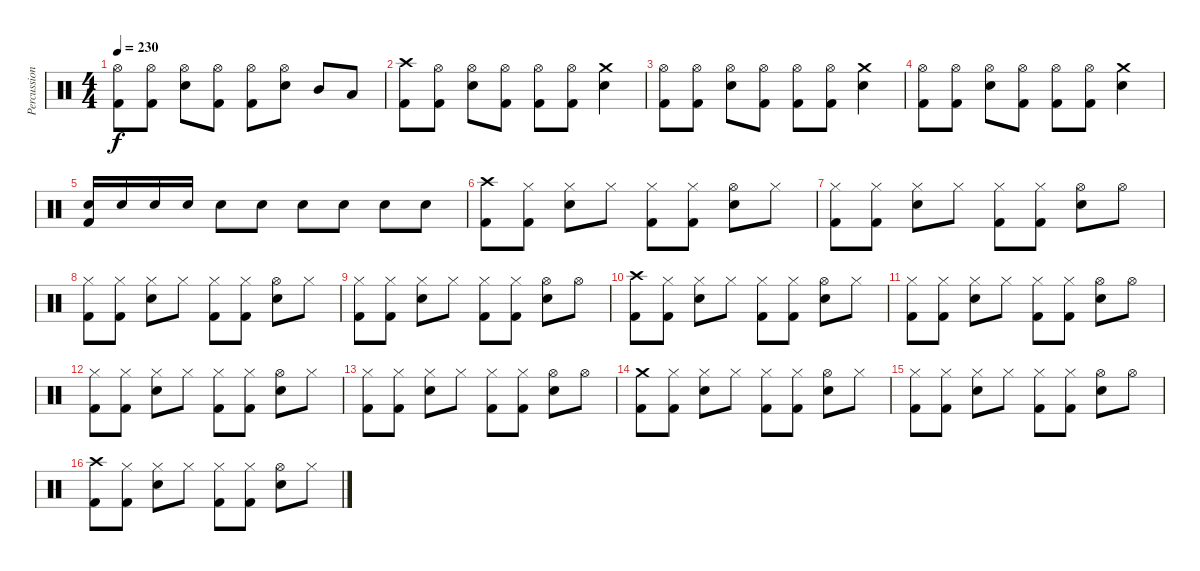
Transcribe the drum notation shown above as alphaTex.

\track ("Percussion" "Percussion") {instrument percussion}
\staff {score}
\articulation defaults
\ts (4 4)
\tempo 230
\clef neutral
\ks c
("Hi-Hat (open)" "Kick (hit) 2").8{dy f} ("Hi-Hat (open)" "Kick (hit) 2").8 ("Hi-Hat (open)" "Snare (hit) 2").8 ("Hi-Hat (open)" "Kick (hit) 2").8 ("Hi-Hat (open)" "Kick (hit) 2").8 ("Hi-Hat (open)" "Snare (hit) 2").8 "Mid Tom (hit)".8 "Low Tom (hit)".8 |
("Crash high (hit)" "Kick (hit) 2").8 ("Hi-Hat (open)" "Kick (hit) 2").8 ("Hi-Hat (open)" "Snare (hit) 2").8 ("Hi-Hat (open)" "Kick (hit) 2").8 ("Hi-Hat (open)" "Kick (hit) 2").8 ("Hi-Hat (open)" "Kick (hit) 2").8 ("Crash medium (hit)" "Snare (hit) 2").4 |
("Hi-Hat (open)" "Kick (hit) 2").8 ("Hi-Hat (open)" "Kick (hit) 2").8 ("Hi-Hat (open)" "Snare (hit) 2").8 ("Hi-Hat (open)" "Kick (hit) 2").8 ("Hi-Hat (open)" "Kick (hit) 2").8 ("Hi-Hat (open)" "Kick (hit) 2").8 ("Crash medium (hit)" "Snare (hit) 2").4 |
("Hi-Hat (open)" "Kick (hit) 2").8 ("Hi-Hat (open)" "Kick (hit) 2").8 ("Hi-Hat (open)" "Snare (hit) 2").8 ("Hi-Hat (open)" "Kick (hit) 2").8 ("Hi-Hat (open)" "Kick (hit) 2").8 ("Hi-Hat (open)" "Kick (hit) 2").8 ("Crash medium (hit)" "Snare (hit) 2").4 |
("Snare (hit) 2" "Kick (hit) 2").16 "Snare (hit) 2".16 "Snare (hit) 2".16 "Snare (hit) 2".16 "Snare (hit) 2".8 "Snare (hit) 2".8 "Snare (hit) 2".8 "Snare (hit) 2".8 "Snare (hit) 2".8 "Snare (hit) 2".8 |
("Crash high (hit)" "Kick (hit) 2").8 ("Hi-Hat (closed)" "Kick (hit) 2").8 ("Hi-Hat (closed)" "Snare (hit) 2").8 "Hi-Hat (closed)".8 ("Hi-Hat (closed)" "Kick (hit) 2").8 ("Hi-Hat (closed)" "Kick (hit) 2").8 ("Hi-Hat (open)" "Snare (hit) 2").8 "Hi-Hat (closed)".8 |
("Hi-Hat (closed)" "Kick (hit) 2").8 ("Hi-Hat (closed)" "Kick (hit) 2").8 ("Hi-Hat (closed)" "Snare (hit) 2").8 "Hi-Hat (closed)".8 ("Hi-Hat (closed)" "Kick (hit) 2").8 ("Hi-Hat (closed)" "Kick (hit) 2").8 ("Hi-Hat (open)" "Snare (hit) 2").8 "Hi-Hat (open)".8 |
("Hi-Hat (closed)" "Kick (hit) 2").8 ("Hi-Hat (closed)" "Kick (hit) 2").8 ("Hi-Hat (closed)" "Snare (hit) 2").8 "Hi-Hat (closed)".8 ("Hi-Hat (closed)" "Kick (hit) 2").8 ("Hi-Hat (closed)" "Kick (hit) 2").8 ("Hi-Hat (open)" "Snare (hit) 2").8 "Hi-Hat (closed)".8 |
("Hi-Hat (closed)" "Kick (hit) 2").8 ("Hi-Hat (closed)" "Kick (hit) 2").8 ("Hi-Hat (closed)" "Snare (hit) 2").8 "Hi-Hat (closed)".8 ("Hi-Hat (closed)" "Kick (hit) 2").8 ("Hi-Hat (closed)" "Kick (hit) 2").8 ("Hi-Hat (open)" "Snare (hit) 2").8 "Hi-Hat (open)".8 |
("Crash high (hit)" "Kick (hit) 2").8 ("Hi-Hat (closed)" "Kick (hit) 2").8 ("Hi-Hat (closed)" "Snare (hit) 2").8 "Hi-Hat (closed)".8 ("Hi-Hat (closed)" "Kick (hit) 2").8 ("Hi-Hat (closed)" "Kick (hit) 2").8 ("Hi-Hat (open)" "Snare (hit) 2").8 "Hi-Hat (closed)".8 |
("Hi-Hat (closed)" "Kick (hit) 2").8 ("Hi-Hat (closed)" "Kick (hit) 2").8 ("Hi-Hat (closed)" "Snare (hit) 2").8 "Hi-Hat (closed)".8 ("Hi-Hat (closed)" "Kick (hit) 2").8 ("Hi-Hat (closed)" "Kick (hit) 2").8 ("Hi-Hat (open)" "Snare (hit) 2").8 "Hi-Hat (open)".8 |
("Hi-Hat (closed)" "Kick (hit) 2").8 ("Hi-Hat (closed)" "Kick (hit) 2").8 ("Hi-Hat (closed)" "Snare (hit) 2").8 "Hi-Hat (closed)".8 ("Hi-Hat (closed)" "Kick (hit) 2").8 ("Hi-Hat (closed)" "Kick (hit) 2").8 ("Hi-Hat (open)" "Snare (hit) 2").8 "Hi-Hat (closed)".8 |
("Hi-Hat (closed)" "Kick (hit) 2").8 ("Hi-Hat (closed)" "Kick (hit) 2").8 ("Hi-Hat (closed)" "Snare (hit) 2").8 "Hi-Hat (closed)".8 ("Hi-Hat (closed)" "Kick (hit) 2").8 ("Hi-Hat (closed)" "Kick (hit) 2").8 ("Hi-Hat (open)" "Snare (hit) 2").8 "Hi-Hat (open)".8 |
("Crash medium (hit)" "Kick (hit) 2").8 ("Hi-Hat (closed)" "Kick (hit) 2").8 ("Hi-Hat (closed)" "Snare (hit) 2").8 "Hi-Hat (closed)".8 ("Hi-Hat (closed)" "Kick (hit) 2").8 ("Hi-Hat (closed)" "Kick (hit) 2").8 ("Hi-Hat (open)" "Snare (hit) 2").8 "Hi-Hat (closed)".8 |
("Hi-Hat (closed)" "Kick (hit) 2").8 ("Hi-Hat (closed)" "Kick (hit) 2").8 ("Hi-Hat (closed)" "Snare (hit) 2").8 "Hi-Hat (closed)".8 ("Hi-Hat (closed)" "Kick (hit) 2").8 ("Hi-Hat (closed)" "Kick (hit) 2").8 ("Hi-Hat (open)" "Snare (hit) 2").8 "Hi-Hat (open)".8 |
("Crash high (hit)" "Kick (hit) 2").8 ("Hi-Hat (closed)" "Kick (hit) 2").8 ("Hi-Hat (closed)" "Snare (hit) 2").8 "Hi-Hat (closed)".8 ("Hi-Hat (closed)" "Kick (hit) 2").8 ("Hi-Hat (closed)" "Kick (hit) 2").8 ("Hi-Hat (open)" "Snare (hit) 2").8 "Hi-Hat (closed)".8
